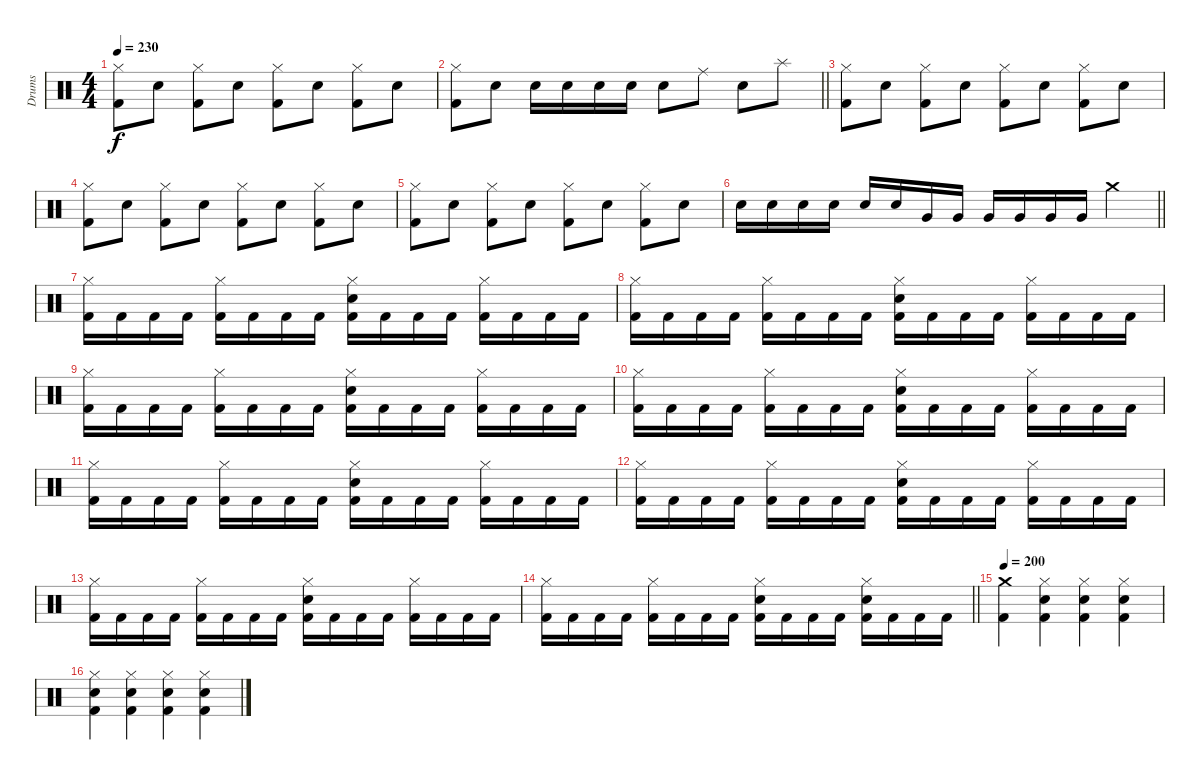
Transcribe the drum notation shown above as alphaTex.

\track ("Drums" "Drums") {instrument percussion}
\staff {score}
\articulation defaults
\ts (4 4)
\tempo 230
\clef neutral
\ks c
("Hi-Hat (closed)" "Kick (hit) 2").8{dy f} "Snare (hit) 2".8 ("Hi-Hat (closed)" "Kick (hit) 2").8 "Snare (hit) 2".8 ("Hi-Hat (closed)" "Kick (hit) 2").8 "Snare (hit) 2".8 ("Hi-Hat (closed)" "Kick (hit) 2").8 "Snare (hit) 2".8 |
\barLineRight lightlight
("Hi-Hat (closed)" "Kick (hit) 2").8 "Snare (hit) 2".8 "Snare (hit) 2".16 "Snare (hit) 2".16 "Snare (hit) 2".16 "Snare (hit) 2".16 "Snare (hit) 2".8 "Ride (middle)".8 "Snare (hit) 2".8 "Splash (hit)".8 |
("Hi-Hat (closed)" "Kick (hit) 2").8 "Snare (hit) 2".8 ("Hi-Hat (closed)" "Kick (hit) 2").8 "Snare (hit) 2".8 ("Hi-Hat (closed)" "Kick (hit) 2").8 "Snare (hit) 2".8 ("Hi-Hat (closed)" "Kick (hit) 2").8 "Snare (hit) 2".8 |
("Hi-Hat (closed)" "Kick (hit) 2").8 "Snare (hit) 2".8 ("Hi-Hat (closed)" "Kick (hit) 2").8 "Snare (hit) 2".8 ("Hi-Hat (closed)" "Kick (hit) 2").8 "Snare (hit) 2".8 ("Hi-Hat (closed)" "Kick (hit) 2").8 "Snare (hit) 2".8 |
("Hi-Hat (closed)" "Kick (hit) 2").8 "Snare (hit) 2".8 ("Hi-Hat (closed)" "Kick (hit) 2").8 "Snare (hit) 2".8 ("Hi-Hat (closed)" "Kick (hit) 2").8 "Snare (hit) 2".8 ("Hi-Hat (closed)" "Kick (hit) 2").8 "Snare (hit) 2".8 |
\barLineRight lightlight "Snare (hit) 2".16 "Snare (hit) 2".16 "Snare (hit) 2".16 "Snare (hit) 2".16 "Snare (hit) 2".16 "Snare (hit) 2".16 "Very Low Tom (hit)".16 "Very Low Tom (hit)".16 "Very Low Tom (hit)".16 "Very Low Tom (hit)".16 "Very Low Tom (hit)".16 "Very Low Tom (hit)".16 "Crash medium (hit)".4
|
\section ("" " ")
("Hi-Hat (closed)" "Kick (hit) 2").16 "Kick (hit) 2".16 "Kick (hit) 2".16 "Kick (hit) 2".16 ("Hi-Hat (closed)" "Kick (hit) 2").16 "Kick (hit) 2".16 "Kick (hit) 2".16 "Kick (hit) 2".16 ("Snare (hit) 2" "Hi-Hat (closed)" "Kick (hit) 2").16 "Kick (hit) 2".16 "Kick (hit) 2".16 "Kick (hit) 2".16 ("Hi-Hat (closed)" "Kick (hit) 2").16 "Kick (hit) 2".16 "Kick (hit) 2".16 "Kick (hit) 2".16 |
("Hi-Hat (closed)" "Kick (hit) 2").16 "Kick (hit) 2".16 "Kick (hit) 2".16 "Kick (hit) 2".16 ("Hi-Hat (closed)" "Kick (hit) 2").16 "Kick (hit) 2".16 "Kick (hit) 2".16 "Kick (hit) 2".16 ("Snare (hit) 2" "Hi-Hat (closed)" "Kick (hit) 2").16 "Kick (hit) 2".16 "Kick (hit) 2".16 "Kick (hit) 2".16 ("Hi-Hat (closed)" "Kick (hit) 2").16 "Kick (hit) 2".16 "Kick (hit) 2".16 "Kick (hit) 2".16 |
("Hi-Hat (closed)" "Kick (hit) 2").16 "Kick (hit) 2".16 "Kick (hit) 2".16 "Kick (hit) 2".16 ("Hi-Hat (closed)" "Kick (hit) 2").16 "Kick (hit) 2".16 "Kick (hit) 2".16 "Kick (hit) 2".16 ("Snare (hit) 2" "Hi-Hat (closed)" "Kick (hit) 2").16 "Kick (hit) 2".16 "Kick (hit) 2".16 "Kick (hit) 2".16 ("Hi-Hat (closed)" "Kick (hit) 2").16 "Kick (hit) 2".16 "Kick (hit) 2".16 "Kick (hit) 2".16 |
("Hi-Hat (closed)" "Kick (hit) 2").16 "Kick (hit) 2".16 "Kick (hit) 2".16 "Kick (hit) 2".16 ("Hi-Hat (closed)" "Kick (hit) 2").16 "Kick (hit) 2".16 "Kick (hit) 2".16 "Kick (hit) 2".16 ("Snare (hit) 2" "Hi-Hat (closed)" "Kick (hit) 2").16 "Kick (hit) 2".16 "Kick (hit) 2".16 "Kick (hit) 2".16 ("Hi-Hat (closed)" "Kick (hit) 2").16 "Kick (hit) 2".16 "Kick (hit) 2".16 "Kick (hit) 2".16 |
("Hi-Hat (closed)" "Kick (hit) 2").16 "Kick (hit) 2".16 "Kick (hit) 2".16 "Kick (hit) 2".16 ("Hi-Hat (closed)" "Kick (hit) 2").16 "Kick (hit) 2".16 "Kick (hit) 2".16 "Kick (hit) 2".16 ("Snare (hit) 2" "Hi-Hat (closed)" "Kick (hit) 2").16 "Kick (hit) 2".16 "Kick (hit) 2".16 "Kick (hit) 2".16 ("Hi-Hat (closed)" "Kick (hit) 2").16 "Kick (hit) 2".16 "Kick (hit) 2".16 "Kick (hit) 2".16 |
("Hi-Hat (closed)" "Kick (hit) 2").16 "Kick (hit) 2".16 "Kick (hit) 2".16 "Kick (hit) 2".16 ("Hi-Hat (closed)" "Kick (hit) 2").16 "Kick (hit) 2".16 "Kick (hit) 2".16 "Kick (hit) 2".16 ("Snare (hit) 2" "Hi-Hat (closed)" "Kick (hit) 2").16 "Kick (hit) 2".16 "Kick (hit) 2".16 "Kick (hit) 2".16 ("Hi-Hat (closed)" "Kick (hit) 2").16 "Kick (hit) 2".16 "Kick (hit) 2".16 "Kick (hit) 2".16 |
("Hi-Hat (closed)" "Kick (hit) 2").16 "Kick (hit) 2".16 "Kick (hit) 2".16 "Kick (hit) 2".16 ("Hi-Hat (closed)" "Kick (hit) 2").16 "Kick (hit) 2".16 "Kick (hit) 2".16 "Kick (hit) 2".16 ("Snare (hit) 2" "Hi-Hat (closed)" "Kick (hit) 2").16 "Kick (hit) 2".16 "Kick (hit) 2".16 "Kick (hit) 2".16 ("Hi-Hat (closed)" "Kick (hit) 2").16 "Kick (hit) 2".16 "Kick (hit) 2".16 "Kick (hit) 2".16 |
\barLineRight lightlight
("Hi-Hat (closed)" "Kick (hit) 2").16 "Kick (hit) 2".16 "Kick (hit) 2".16 "Kick (hit) 2".16 ("Hi-Hat (closed)" "Kick (hit) 2").16 "Kick (hit) 2".16 "Kick (hit) 2".16 "Kick (hit) 2".16 ("Snare (hit) 2" "Hi-Hat (closed)" "Kick (hit) 2").16 "Kick (hit) 2".16 "Kick (hit) 2".16 "Kick (hit) 2".16 ("Snare (hit) 2" "Hi-Hat (closed)" "Kick (hit) 2").16 "Kick (hit) 2".16 "Kick (hit) 2".16 "Kick (hit) 2".16 |
\section ("" "")
\tempo 200
("Kick (hit) 2" "Crash medium (hit)").4 ("Hi-Hat (closed)" "Kick (hit) 2" "Snare (hit) 2").4 ("Hi-Hat (closed)" "Kick (hit) 2" "Snare (hit) 2").4 ("Hi-Hat (closed)" "Kick (hit) 2" "Snare (hit) 2").4 |
("Hi-Hat (closed)" "Kick (hit) 2" "Snare (hit) 2").4 ("Hi-Hat (closed)" "Kick (hit) 2" "Snare (hit) 2").4 ("Hi-Hat (closed)" "Kick (hit) 2" "Snare (hit) 2").4 ("Hi-Hat (closed)" "Kick (hit) 2" "Snare (hit) 2").4
